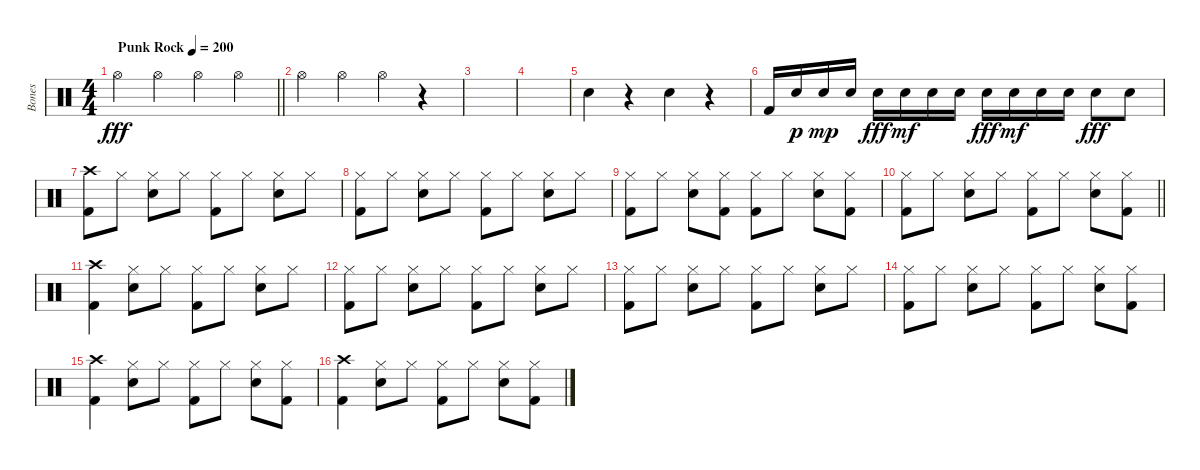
\track ("Bones " "Bones ") {instrument percussion}
\staff {score}
\articulation defaults
\ts (4 4)
\tempo (200 "Punk Rock")
\clef neutral
\barLineRight lightlight
\ks c "Hi-Hat (open)".4{dy fff} "Hi-Hat (open)".4 "Hi-Hat (open)".4 "Hi-Hat (open)".4
|
"Hi-Hat (open)".4 "Hi-Hat (open)".4 "Hi-Hat (open)".4 r.4 |
|
|
"Snare (hit) 2".4 r.4 "Snare (hit) 2".4 r.4 |
"Kick (hit) 2".16 "Snare (hit) 2".16{dy p} "Snare (hit) 2".16{dy mp} "Snare (hit) 2".16 "Snare (hit) 2".16{dy fff} "Snare (hit) 2".16{dy mf} "Snare (hit) 2".16 "Snare (hit) 2".16 "Snare (hit) 2".16{dy fff} "Snare (hit) 2".16{dy mf} "Snare (hit) 2".16 "Snare (hit) 2".16 "Snare (hit) 2".8{dy fff} "Snare (hit) 2".8 |
("Crash high (hit)" "Kick (hit) 2").8 "Hi-Hat (closed)".8 ("Hi-Hat (closed)" "Snare (hit) 2").8 "Hi-Hat (closed)".8 ("Hi-Hat (closed)" "Kick (hit) 2").8 "Hi-Hat (closed)".8 ("Hi-Hat (closed)" "Snare (hit) 2").8 "Hi-Hat (closed)".8 |
("Hi-Hat (closed)" "Kick (hit) 2").8 "Hi-Hat (closed)".8 ("Hi-Hat (closed)" "Snare (hit) 2").8 "Hi-Hat (closed)".8 ("Hi-Hat (closed)" "Kick (hit) 2").8 "Hi-Hat (closed)".8 ("Hi-Hat (closed)" "Snare (hit) 2").8 "Hi-Hat (closed)".8 |
("Hi-Hat (closed)" "Kick (hit) 2").8 "Hi-Hat (closed)".8 ("Hi-Hat (closed)" "Snare (hit) 2").8 ("Hi-Hat (closed)" "Kick (hit) 2").8 ("Hi-Hat (closed)" "Kick (hit) 2").8 "Hi-Hat (closed)".8 ("Hi-Hat (closed)" "Snare (hit) 2").8 ("Hi-Hat (closed)" "Kick (hit) 2").8 |
\barLineRight lightlight
("Hi-Hat (closed)" "Kick (hit) 2").8 "Hi-Hat (closed)".8 ("Hi-Hat (closed)" "Snare (hit) 2").8 "Hi-Hat (closed)".8 ("Hi-Hat (closed)" "Kick (hit) 2").8 "Hi-Hat (closed)".8 ("Hi-Hat (closed)" "Snare (hit) 2").8 ("Hi-Hat (closed)" "Kick (hit) 2").8 |
("Crash high (hit)" "Kick (hit) 2").4 ("Hi-Hat (closed)" "Snare (hit) 2").8 "Hi-Hat (closed)".8 ("Hi-Hat (closed)" "Kick (hit) 2").8 "Hi-Hat (closed)".8 ("Hi-Hat (closed)" "Snare (hit) 2").8 "Hi-Hat (closed)".8 |
("Hi-Hat (closed)" "Kick (hit) 2").8 "Hi-Hat (closed)".8 ("Hi-Hat (closed)" "Snare (hit) 2").8 "Hi-Hat (closed)".8 ("Hi-Hat (closed)" "Kick (hit) 2").8 "Hi-Hat (closed)".8 ("Hi-Hat (closed)" "Snare (hit) 2").8 "Hi-Hat (closed)".8 |
("Hi-Hat (closed)" "Kick (hit) 2").8 "Hi-Hat (closed)".8 ("Hi-Hat (closed)" "Snare (hit) 2").8 "Hi-Hat (closed)".8 ("Hi-Hat (closed)" "Kick (hit) 2").8 "Hi-Hat (closed)".8 ("Hi-Hat (closed)" "Snare (hit) 2").8 "Hi-Hat (closed)".8 |
("Hi-Hat (closed)" "Kick (hit) 2").8 "Hi-Hat (closed)".8 ("Hi-Hat (closed)" "Snare (hit) 2").8 "Hi-Hat (closed)".8 ("Hi-Hat (closed)" "Kick (hit) 2").8 "Hi-Hat (closed)".8 ("Hi-Hat (closed)" "Snare (hit) 2").8 ("Hi-Hat (closed)" "Kick (hit) 2").8 |
("Crash high (hit)" "Kick (hit) 2").4 ("Hi-Hat (closed)" "Snare (hit) 2").8 "Hi-Hat (closed)".8 ("Hi-Hat (closed)" "Kick (hit) 2").8 "Hi-Hat (closed)".8 ("Hi-Hat (closed)" "Snare (hit) 2").8 ("Hi-Hat (closed)" "Kick (hit) 2").8 |
("Crash high (hit)" "Kick (hit) 2").4 ("Hi-Hat (closed)" "Snare (hit) 2").8 "Hi-Hat (closed)".8 ("Hi-Hat (closed)" "Kick (hit) 2").8 "Hi-Hat (closed)".8 ("Hi-Hat (closed)" "Snare (hit) 2").8 ("Hi-Hat (closed)" "Kick (hit) 2").8
